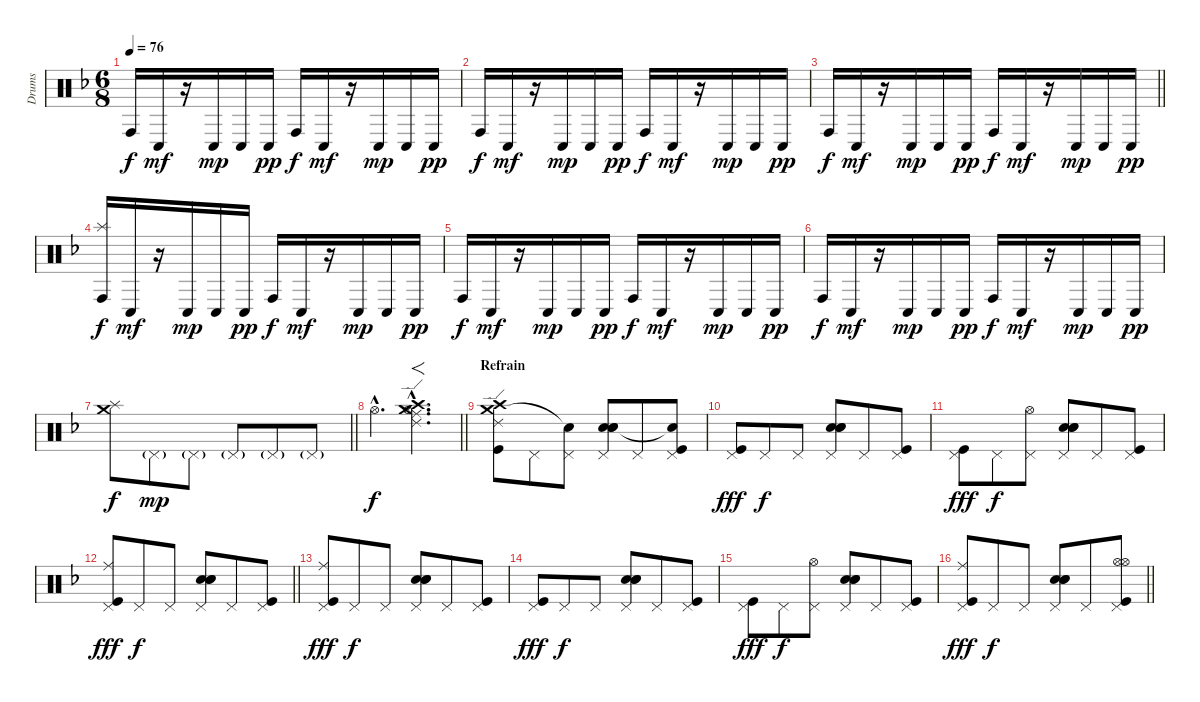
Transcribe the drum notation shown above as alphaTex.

\track ("Drums" "Drums") {instrument percussion}
\staff {score}
\articulation defaults
\ts (6 8)
\tempo 76
\clef neutral
\ks f "Conga high (hit)".16{dy f} "Conga low (hit)".16{dy mf}
r.16 "Conga low (hit)".16{dy mp} "Conga low (hit)".16 "Conga low (hit)".16{dy pp} "Conga high (hit)".16{dy f} "Conga low (hit)".16{dy mf} r.16 "Conga low (hit)".16{dy mp} "Conga low (hit)".16 "Conga low (hit)".16{dy pp} |
"Conga high (hit)".16{dy f} "Conga low (hit)".16{dy mf} r.16 "Conga low (hit)".16{dy mp} "Conga low (hit)".16 "Conga low (hit)".16{dy pp} "Conga high (hit)".16{dy f} "Conga low (hit)".16{dy mf} r.16 "Conga low (hit)".16{dy mp} "Conga low (hit)".16 "Conga low (hit)".16{dy pp} |
\barLineRight lightlight "Conga high (hit)".16{dy f} "Conga low (hit)".16{dy mf}
r.16 "Conga low (hit)".16{dy mp} "Conga low (hit)".16 "Conga low (hit)".16{dy pp} "Conga high (hit)".16{dy f} "Conga low (hit)".16{dy mf} r.16 "Conga low (hit)".16{dy mp} "Conga low (hit)".16 "Conga low (hit)".16{dy pp} |
("Splash (hit)" "Conga high (hit)").16{dy f} "Conga low (hit)".16{dy mf} r.16 "Conga low (hit)".16{dy mp} "Conga low (hit)".16 "Conga low (hit)".16{dy pp} "Conga high (hit)".16{dy f} "Conga low (hit)".16{dy mf} r.16 "Conga low (hit)".16{dy mp} "Conga low (hit)".16 "Conga low (hit)".16{dy pp} |
"Conga high (hit)".16{dy f} "Conga low (hit)".16{dy mf} r.16 "Conga low (hit)".16{dy mp} "Conga low (hit)".16 "Conga low (hit)".16{dy pp} "Conga high (hit)".16{dy f} "Conga low (hit)".16{dy mf} r.16 "Conga low (hit)".16{dy mp} "Conga low (hit)".16 "Conga low (hit)".16{dy pp} |
"Conga high (hit)".16{dy f} "Conga low (hit)".16{dy mf} r.16 "Conga low (hit)".16{dy mp} "Conga low (hit)".16 "Conga low (hit)".16{dy pp} "Conga high (hit)".16{dy f} "Conga low (hit)".16{dy mf} r.16 "Conga low (hit)".16{dy mp} "Conga low (hit)".16 "Conga low (hit)".16{dy pp} |
\barLineRight lightlight
("Splash (hit)" "Crash medium (hit)").8{dy f} "Pedal Hi-Hat (hit)"{g}.8{dy mp} "Pedal Hi-Hat (hit)"{g}.8 "Pedal Hi-Hat (hit)"{g}.8 "Pedal Hi-Hat (hit)"{g}.8 "Pedal Hi-Hat (hit)"{g}.8 |
\barLineRight lightlight "Hi-Hat (open)"{hac}.4{d dy f}
("Crash medium (hit)"{hac} "Crash high (hit)"{hac} "Ride (middle)"{hac} "Ride (edge) 2"{hac} "Hi-Hat (open)"{hac}).4{f d} |
\section ("" "Refrain")
("Ride (edge) 2" "Crash medium (hit)" "Crash high (hit)" "Kick (hit)").8 "Pedal Hi-Hat (hit)".8 ("Pedal Hi-Hat (hit)" "Snare (hit)"{t}).8 ("Pedal Hi-Hat (hit)" "Metronome (bell)" "Electric Snare (hit)" "Snare (hit) 2").8 "Pedal Hi-Hat (hit)".8 ("Pedal Hi-Hat (hit)" "Snare (hit)"{t} "Kick (hit)").8 |
("Pedal Hi-Hat (hit)" "Kick (hit)").8{dy fff} "Pedal Hi-Hat (hit)".8{dy f} "Pedal Hi-Hat (hit)".8 ("Pedal Hi-Hat (hit)" "Metronome (bell)" "Electric Snare (hit)" "Snare (hit) 2").8 "Pedal Hi-Hat (hit)".8 ("Pedal Hi-Hat (hit)" "Kick (hit)").8 |
("Pedal Hi-Hat (hit)" "Kick (hit)").8{dy fff} "Pedal Hi-Hat (hit)".8{dy f} ("Pedal Hi-Hat (hit)" "Hi-Hat (open)").8 ("Pedal Hi-Hat (hit)" "Metronome (bell)" "Electric Snare (hit)" "Snare (hit) 2").8 "Pedal Hi-Hat (hit)".8 ("Pedal Hi-Hat (hit)" "Kick (hit)").8 |
\barLineRight lightlight
("Pedal Hi-Hat (hit)" "Ride (middle)" "Kick (hit)").8{dy fff} "Pedal Hi-Hat (hit)".8{dy f} "Pedal Hi-Hat (hit)".8 ("Pedal Hi-Hat (hit)" "Metronome (bell)" "Electric Snare (hit)" "Snare (hit) 2").8 "Pedal Hi-Hat (hit)".8 ("Pedal Hi-Hat (hit)" "Kick (hit)").8 |
("Pedal Hi-Hat (hit)" "Ride (middle)" "Kick (hit)").8{dy fff} "Pedal Hi-Hat (hit)".8{dy f} "Pedal Hi-Hat (hit)".8 ("Pedal Hi-Hat (hit)" "Metronome (bell)" "Electric Snare (hit)" "Snare (hit) 2").8 "Pedal Hi-Hat (hit)".8 ("Pedal Hi-Hat (hit)" "Kick (hit)").8 |
("Pedal Hi-Hat (hit)" "Kick (hit)").8{dy fff} "Pedal Hi-Hat (hit)".8{dy f} "Pedal Hi-Hat (hit)".8 ("Pedal Hi-Hat (hit)" "Metronome (bell)" "Electric Snare (hit)" "Snare (hit) 2").8 "Pedal Hi-Hat (hit)".8 ("Pedal Hi-Hat (hit)" "Kick (hit)").8 |
("Pedal Hi-Hat (hit)" "Kick (hit)").8{dy fff} "Pedal Hi-Hat (hit)".8{dy f} ("Pedal Hi-Hat (hit)" "Hi-Hat (open)").8 ("Pedal Hi-Hat (hit)" "Metronome (bell)" "Electric Snare (hit)" "Snare (hit) 2").8 "Pedal Hi-Hat (hit)".8 ("Pedal Hi-Hat (hit)" "Kick (hit)").8 |
\barLineRight lightlight
("Pedal Hi-Hat (hit)" "Ride (middle)" "Kick (hit)").8{dy fff} "Pedal Hi-Hat (hit)".8{dy f} "Pedal Hi-Hat (hit)".8 ("Pedal Hi-Hat (hit)" "Metronome (bell)" "Electric Snare (hit)" "Snare (hit) 2").8 "Pedal Hi-Hat (hit)".8 ("Pedal Hi-Hat (hit)" "Hi-Hat (open)" "Hi-Hat (open)" "Kick (hit)").8
